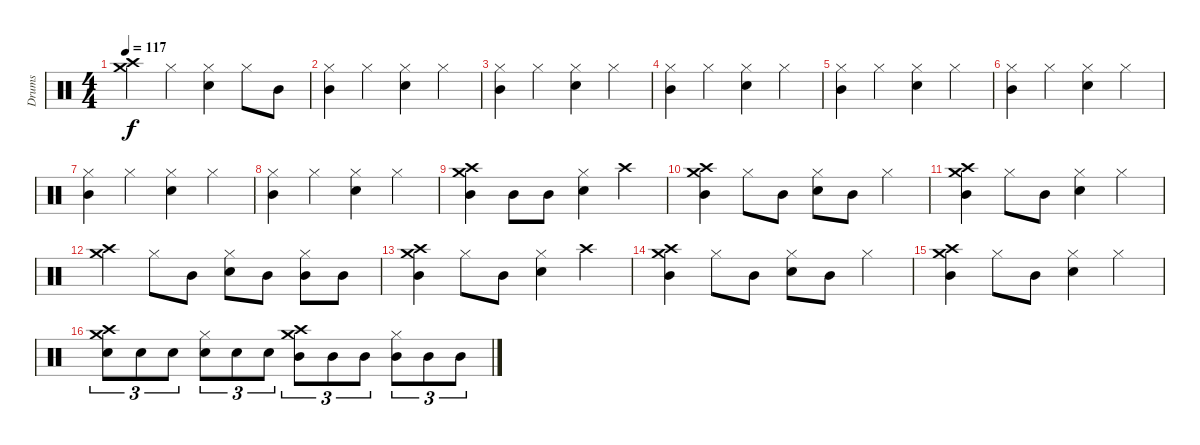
\track ("Drums" "Drums") {instrument percussion}
\staff {score}
\articulation defaults
\ts (4 4)
\tempo 117
\clef neutral
\ks c
("Crash high (hit)" "Crash medium (hit)").4{dy f} "Hi-Hat (closed)".4 ("Hi-Hat (closed)" "Electric Snare (hit)").4 "Hi-Hat (closed)".8 "Mid Tom (hit)".8 |
("Hi-Hat (closed)" "Mid Tom (hit)").4 "Hi-Hat (closed)".4 ("Hi-Hat (closed)" "Electric Snare (hit)").4 "Hi-Hat (closed)".4 |
("Hi-Hat (closed)" "Mid Tom (hit)").4 "Hi-Hat (closed)".4 ("Hi-Hat (closed)" "Electric Snare (hit)").4 "Hi-Hat (closed)".4 |
("Hi-Hat (closed)" "Mid Tom (hit)").4 "Hi-Hat (closed)".4 ("Hi-Hat (closed)" "Electric Snare (hit)").4 "Hi-Hat (closed)".4 |
("Hi-Hat (closed)" "Mid Tom (hit)").4 "Hi-Hat (closed)".4 ("Hi-Hat (closed)" "Electric Snare (hit)").4 "Hi-Hat (closed)".4 |
("Hi-Hat (closed)" "Mid Tom (hit)").4 "Hi-Hat (closed)".4 ("Hi-Hat (closed)" "Electric Snare (hit)").4 "Hi-Hat (closed)".4 |
("Hi-Hat (closed)" "Mid Tom (hit)").4 "Hi-Hat (closed)".4 ("Hi-Hat (closed)" "Electric Snare (hit)").4 "Hi-Hat (closed)".4 |
("Hi-Hat (closed)" "Mid Tom (hit)").4 "Hi-Hat (closed)".4 ("Hi-Hat (closed)" "Electric Snare (hit)").4 "Hi-Hat (closed)".4 |
("Crash high (hit)" "Crash medium (hit)" "Mid Tom (hit)").4 "Mid Tom (hit)".8 "Mid Tom (hit)".8 ("Hi-Hat (closed)" "Electric Snare (hit)").4 "Crash high (hit)".4 |
("Crash high (hit)" "Crash medium (hit)" "Mid Tom (hit)").4 "Hi-Hat (closed)".8 "Mid Tom (hit)".8 ("Hi-Hat (closed)" "Electric Snare (hit)").8 "Mid Tom (hit)".8 "Hi-Hat (closed)".4 |
("Crash high (hit)" "Crash medium (hit)" "Mid Tom (hit)").4 "Hi-Hat (closed)".8 "Mid Tom (hit)".8 ("Hi-Hat (closed)" "Electric Snare (hit)").4 "Hi-Hat (closed)".4 |
("Crash high (hit)" "Crash medium (hit)").4 "Hi-Hat (closed)".8 "Mid Tom (hit)".8 ("Hi-Hat (closed)" "Electric Snare (hit)").8 "Mid Tom (hit)".8 ("Hi-Hat (closed)" "Mid Tom (hit)").8 "Mid Tom (hit)".8 |
("Crash high (hit)" "Crash medium (hit)" "Mid Tom (hit)").4 "Hi-Hat (closed)".8 "Mid Tom (hit)".8 ("Hi-Hat (closed)" "Electric Snare (hit)").4 "Crash high (hit)".4 |
("Crash high (hit)" "Crash medium (hit)" "Mid Tom (hit)").4 "Hi-Hat (closed)".8 "Mid Tom (hit)".8 ("Hi-Hat (closed)" "Electric Snare (hit)").8 "Mid Tom (hit)".8 "Hi-Hat (closed)".4 |
("Crash high (hit)" "Crash medium (hit)" "Mid Tom (hit)").4 "Hi-Hat (closed)".8 "Mid Tom (hit)".8 ("Hi-Hat (closed)" "Electric Snare (hit)").4 "Hi-Hat (closed)".4 |
("Crash high (hit)" "Crash medium (hit)" "Electric Snare (hit)").8{tu (3 2)} "Electric Snare (hit)".8{tu (3 2)} "Electric Snare (hit)".8{tu (3 2)} ("Hi-Hat (closed)" "Electric Snare (hit)").8{tu (3 2)} "Electric Snare (hit)".8{tu (3 2)} "Electric Snare (hit)".8{tu (3 2)} ("Crash high (hit)" "Crash medium (hit)" "Mid Tom (hit)").8{tu (3 2)} "Mid Tom (hit)".8{tu (3 2)} "Mid Tom (hit)".8{tu (3 2)} ("Hi-Hat (closed)" "Mid Tom (hit)").8{tu (3 2)} "Mid Tom (hit)".8{tu (3 2)} "Mid Tom (hit)".8{tu (3 2)}
